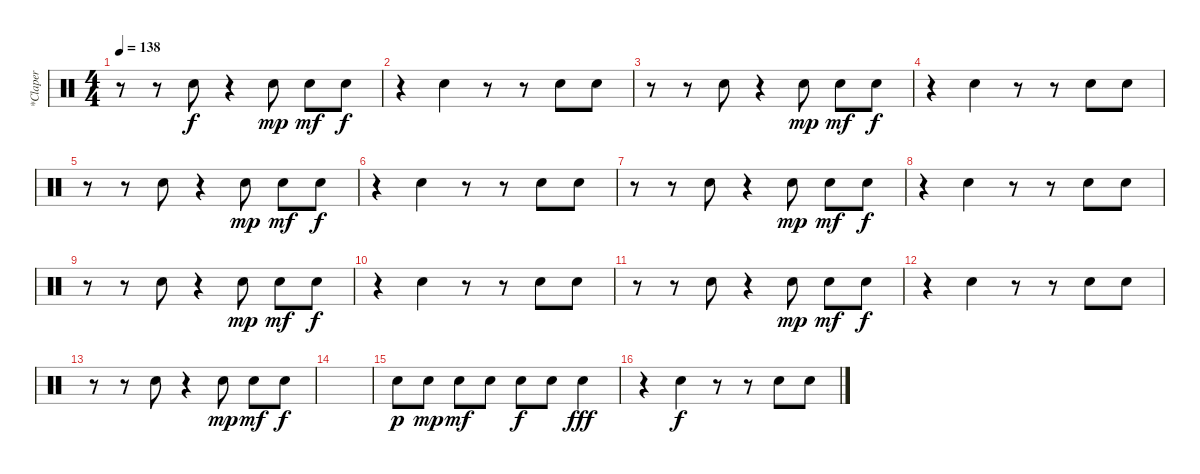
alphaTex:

\track ("*Claper" "*Claper") {instrument percussion}
\staff {score}
\articulation defaults
\ts (4 4)
\tempo 138
\clef neutral
\ks c
r.8{dy f} r.8 "Hand Clap (hit)".8 r.4 "Hand Clap (hit)".8{dy mp} "Hand Clap (hit)".8{dy mf} "Hand Clap (hit)".8{dy f} |
r.4 "Hand Clap (hit)".4 r.8 r.8 "Hand Clap (hit)".8 "Hand Clap (hit)".8 |
r.8 r.8 "Hand Clap (hit)".8 r.4 "Hand Clap (hit)".8{dy mp} "Hand Clap (hit)".8{dy mf} "Hand Clap (hit)".8{dy f} |
r.4 "Hand Clap (hit)".4 r.8 r.8 "Hand Clap (hit)".8 "Hand Clap (hit)".8 |
r.8 r.8 "Hand Clap (hit)".8 r.4 "Hand Clap (hit)".8{dy mp} "Hand Clap (hit)".8{dy mf} "Hand Clap (hit)".8{dy f} |
r.4 "Hand Clap (hit)".4 r.8 r.8 "Hand Clap (hit)".8 "Hand Clap (hit)".8 |
r.8 r.8 "Hand Clap (hit)".8 r.4 "Hand Clap (hit)".8{dy mp} "Hand Clap (hit)".8{dy mf} "Hand Clap (hit)".8{dy f} |
r.4 "Hand Clap (hit)".4 r.8 r.8 "Hand Clap (hit)".8 "Hand Clap (hit)".8 |
r.8 r.8 "Hand Clap (hit)".8 r.4 "Hand Clap (hit)".8{dy mp} "Hand Clap (hit)".8{dy mf} "Hand Clap (hit)".8{dy f} |
r.4 "Hand Clap (hit)".4 r.8 r.8 "Hand Clap (hit)".8 "Hand Clap (hit)".8 |
r.8 r.8 "Hand Clap (hit)".8 r.4 "Hand Clap (hit)".8{dy mp} "Hand Clap (hit)".8{dy mf} "Hand Clap (hit)".8{dy f} |
r.4 "Hand Clap (hit)".4 r.8 r.8 "Hand Clap (hit)".8 "Hand Clap (hit)".8 |
r.8 r.8 "Hand Clap (hit)".8 r.4 "Hand Clap (hit)".8{dy mp} "Hand Clap (hit)".8{dy mf} "Hand Clap (hit)".8{dy f} |
|
"Hand Clap (hit)".8{dy p} "Hand Clap (hit)".8{dy mp} "Hand Clap (hit)".8{dy mf} "Hand Clap (hit)".8 "Hand Clap (hit)".8{dy f} "Hand Clap (hit)".8 "Hand Clap (hit)".4{dy fff} |
r.4 "Hand Clap (hit)".4{dy f} r.8 r.8 "Hand Clap (hit)".8 "Hand Clap (hit)".8
